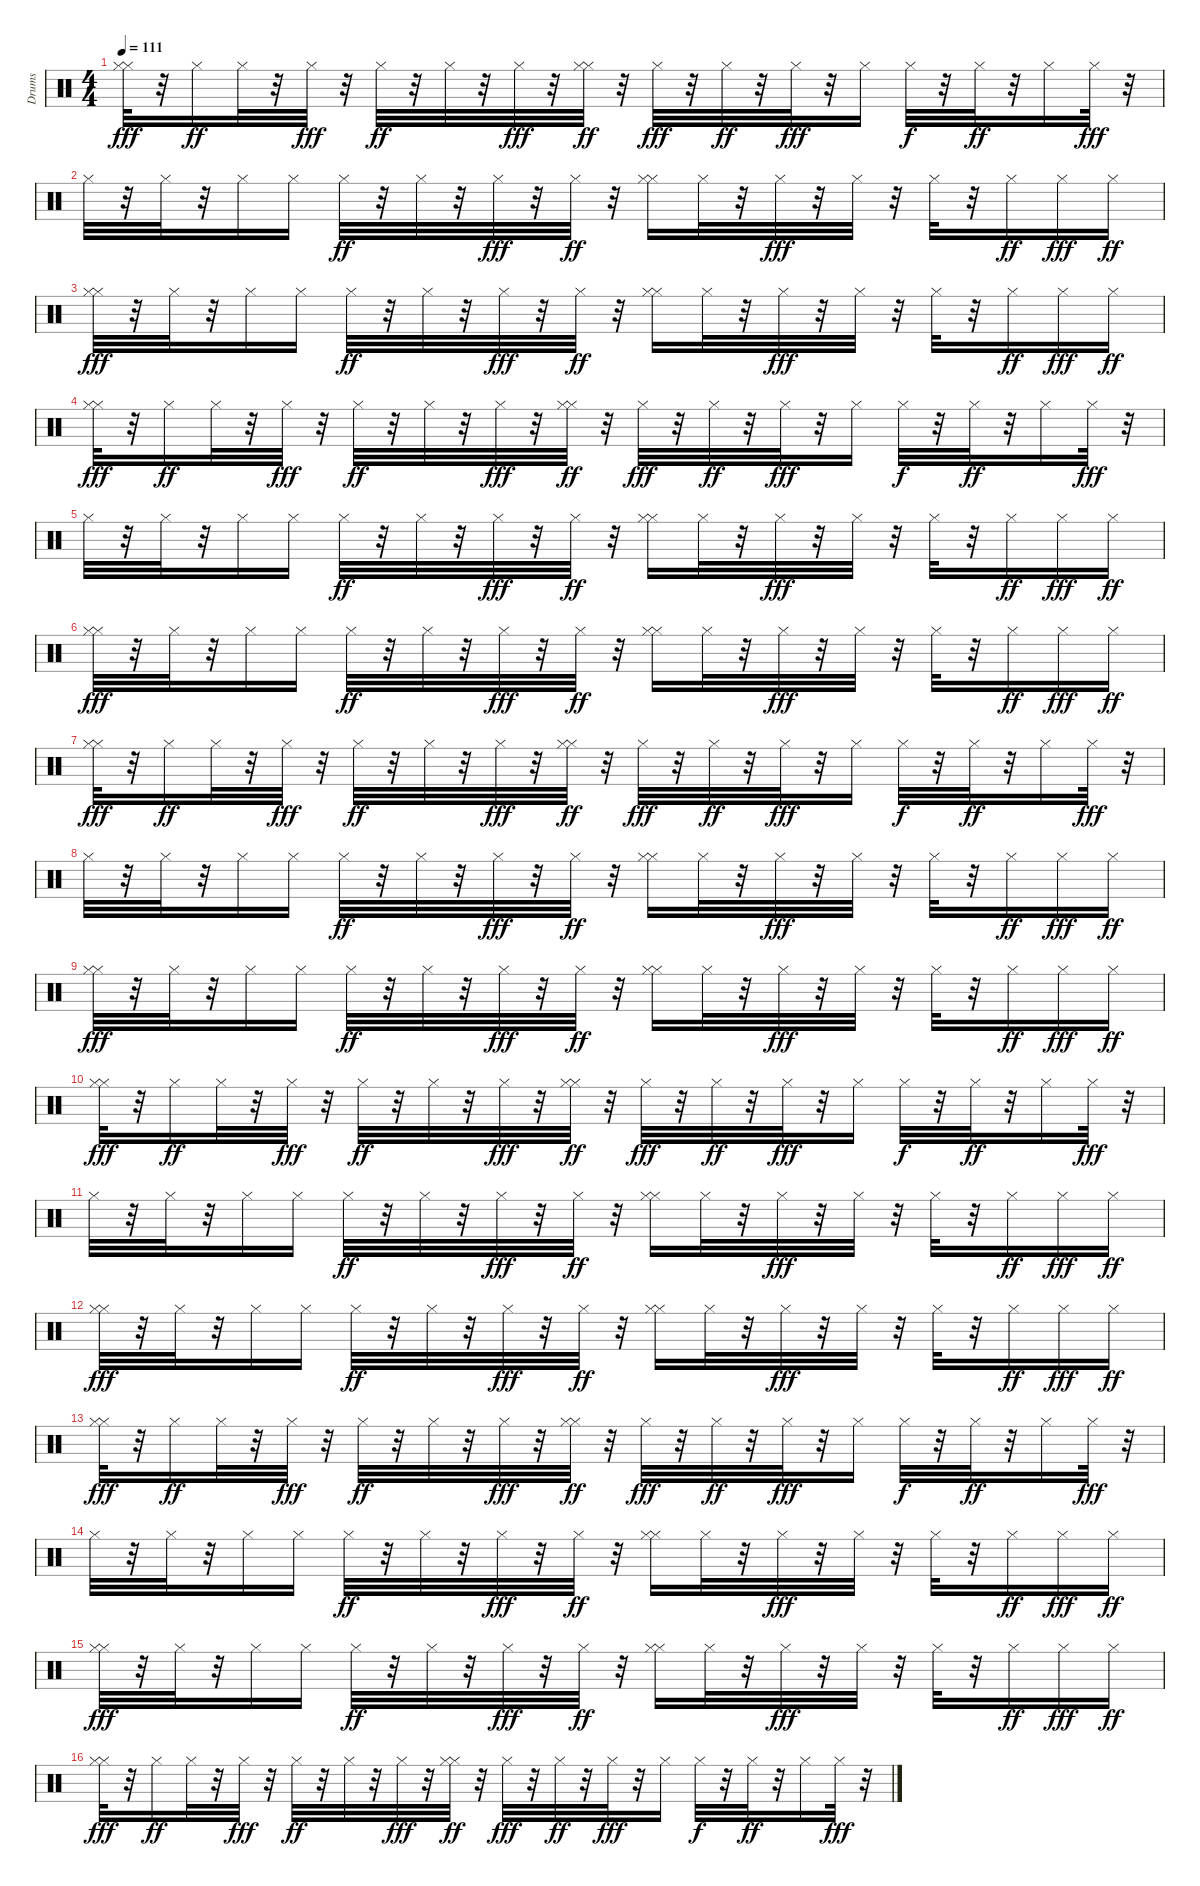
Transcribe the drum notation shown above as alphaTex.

\track ("Drums" "Drums") {instrument percussion}
\staff {score}
\articulation defaults
\ts (4 4)
\tempo 111
\clef neutral
\ks c
("Hi-Hat (closed)" "Hi-Hat (closed)").32{dy fff} r.32 "Hi-Hat (closed)".16{dy ff} "Hi-Hat (closed)".32 r.32 "Hi-Hat (closed)".32{dy fff} r.32 "Hi-Hat (closed)".32{dy ff} r.32 "Hi-Hat (closed)".32 r.32 "Hi-Hat (closed)".32{dy fff} r.32 ("Hi-Hat (closed)" "Hi-Hat (closed)").32{dy ff} r.32 "Hi-Hat (closed)".32{dy fff} r.32 "Hi-Hat (closed)".32{dy ff} r.32 "Hi-Hat (closed)".32{dy fff} r.32 "Hi-Hat (closed)".16 "Hi-Hat (closed)".32{dy f} r.32 "Hi-Hat (closed)".32{dy ff} r.32 "Hi-Hat (closed)".16 "Hi-Hat (closed)".32{dy fff} r.32 |
"Hi-Hat (closed)".32 r.32 "Hi-Hat (closed)".32 r.32 "Hi-Hat (closed)".16 "Hi-Hat (closed)".16 "Hi-Hat (closed)".32{dy ff} r.32 "Hi-Hat (closed)".32 r.32 "Hi-Hat (closed)".32{dy fff} r.32 "Hi-Hat (closed)".32{dy ff} r.32 ("Hi-Hat (closed)" "Hi-Hat (closed)").16 "Hi-Hat (closed)".32 r.32 "Hi-Hat (closed)".32{dy fff} r.32 "Hi-Hat (closed)".32 r.32 "Hi-Hat (closed)".32 r.32 "Hi-Hat (closed)".16{dy ff} "Hi-Hat (closed)".16{dy fff} "Hi-Hat (closed)".16{dy ff} |
("Hi-Hat (closed)" "Hi-Hat (closed)").32{dy fff} r.32 "Hi-Hat (closed)".32 r.32 "Hi-Hat (closed)".16 "Hi-Hat (closed)".16 "Hi-Hat (closed)".32{dy ff} r.32 "Hi-Hat (closed)".32 r.32 "Hi-Hat (closed)".32{dy fff} r.32 "Hi-Hat (closed)".32{dy ff} r.32 ("Hi-Hat (closed)" "Hi-Hat (closed)").16 "Hi-Hat (closed)".32 r.32 "Hi-Hat (closed)".32{dy fff} r.32 "Hi-Hat (closed)".32 r.32 "Hi-Hat (closed)".32 r.32 "Hi-Hat (closed)".16{dy ff} "Hi-Hat (closed)".16{dy fff} "Hi-Hat (closed)".16{dy ff} |
("Hi-Hat (closed)" "Hi-Hat (closed)").32{dy fff} r.32 "Hi-Hat (closed)".16{dy ff} "Hi-Hat (closed)".32 r.32 "Hi-Hat (closed)".32{dy fff} r.32 "Hi-Hat (closed)".32{dy ff} r.32 "Hi-Hat (closed)".32 r.32 "Hi-Hat (closed)".32{dy fff} r.32 ("Hi-Hat (closed)" "Hi-Hat (closed)").32{dy ff} r.32 "Hi-Hat (closed)".32{dy fff} r.32 "Hi-Hat (closed)".32{dy ff} r.32 "Hi-Hat (closed)".32{dy fff} r.32 "Hi-Hat (closed)".16 "Hi-Hat (closed)".32{dy f} r.32 "Hi-Hat (closed)".32{dy ff} r.32 "Hi-Hat (closed)".16 "Hi-Hat (closed)".32{dy fff} r.32 |
"Hi-Hat (closed)".32 r.32 "Hi-Hat (closed)".32 r.32 "Hi-Hat (closed)".16 "Hi-Hat (closed)".16 "Hi-Hat (closed)".32{dy ff} r.32 "Hi-Hat (closed)".32 r.32 "Hi-Hat (closed)".32{dy fff} r.32 "Hi-Hat (closed)".32{dy ff} r.32 ("Hi-Hat (closed)" "Hi-Hat (closed)").16 "Hi-Hat (closed)".32 r.32 "Hi-Hat (closed)".32{dy fff} r.32 "Hi-Hat (closed)".32 r.32 "Hi-Hat (closed)".32 r.32 "Hi-Hat (closed)".16{dy ff} "Hi-Hat (closed)".16{dy fff} "Hi-Hat (closed)".16{dy ff} |
("Hi-Hat (closed)" "Hi-Hat (closed)").32{dy fff} r.32 "Hi-Hat (closed)".32 r.32 "Hi-Hat (closed)".16 "Hi-Hat (closed)".16 "Hi-Hat (closed)".32{dy ff} r.32 "Hi-Hat (closed)".32 r.32 "Hi-Hat (closed)".32{dy fff} r.32 "Hi-Hat (closed)".32{dy ff} r.32 ("Hi-Hat (closed)" "Hi-Hat (closed)").16 "Hi-Hat (closed)".32 r.32 "Hi-Hat (closed)".32{dy fff} r.32 "Hi-Hat (closed)".32 r.32 "Hi-Hat (closed)".32 r.32 "Hi-Hat (closed)".16{dy ff} "Hi-Hat (closed)".16{dy fff} "Hi-Hat (closed)".16{dy ff} |
("Hi-Hat (closed)" "Hi-Hat (closed)").32{dy fff} r.32 "Hi-Hat (closed)".16{dy ff} "Hi-Hat (closed)".32 r.32 "Hi-Hat (closed)".32{dy fff} r.32 "Hi-Hat (closed)".32{dy ff} r.32 "Hi-Hat (closed)".32 r.32 "Hi-Hat (closed)".32{dy fff} r.32 ("Hi-Hat (closed)" "Hi-Hat (closed)").32{dy ff} r.32 "Hi-Hat (closed)".32{dy fff} r.32 "Hi-Hat (closed)".32{dy ff} r.32 "Hi-Hat (closed)".32{dy fff} r.32 "Hi-Hat (closed)".16 "Hi-Hat (closed)".32{dy f} r.32 "Hi-Hat (closed)".32{dy ff} r.32 "Hi-Hat (closed)".16 "Hi-Hat (closed)".32{dy fff} r.32 |
"Hi-Hat (closed)".32 r.32 "Hi-Hat (closed)".32 r.32 "Hi-Hat (closed)".16 "Hi-Hat (closed)".16 "Hi-Hat (closed)".32{dy ff} r.32 "Hi-Hat (closed)".32 r.32 "Hi-Hat (closed)".32{dy fff} r.32 "Hi-Hat (closed)".32{dy ff} r.32 ("Hi-Hat (closed)" "Hi-Hat (closed)").16 "Hi-Hat (closed)".32 r.32 "Hi-Hat (closed)".32{dy fff} r.32 "Hi-Hat (closed)".32 r.32 "Hi-Hat (closed)".32 r.32 "Hi-Hat (closed)".16{dy ff} "Hi-Hat (closed)".16{dy fff} "Hi-Hat (closed)".16{dy ff} |
("Hi-Hat (closed)" "Hi-Hat (closed)").32{dy fff} r.32 "Hi-Hat (closed)".32 r.32 "Hi-Hat (closed)".16 "Hi-Hat (closed)".16 "Hi-Hat (closed)".32{dy ff} r.32 "Hi-Hat (closed)".32 r.32 "Hi-Hat (closed)".32{dy fff} r.32 "Hi-Hat (closed)".32{dy ff} r.32 ("Hi-Hat (closed)" "Hi-Hat (closed)").16 "Hi-Hat (closed)".32 r.32 "Hi-Hat (closed)".32{dy fff} r.32 "Hi-Hat (closed)".32 r.32 "Hi-Hat (closed)".32 r.32 "Hi-Hat (closed)".16{dy ff} "Hi-Hat (closed)".16{dy fff} "Hi-Hat (closed)".16{dy ff} |
("Hi-Hat (closed)" "Hi-Hat (closed)").32{dy fff} r.32 "Hi-Hat (closed)".16{dy ff} "Hi-Hat (closed)".32 r.32 "Hi-Hat (closed)".32{dy fff} r.32 "Hi-Hat (closed)".32{dy ff} r.32 "Hi-Hat (closed)".32 r.32 "Hi-Hat (closed)".32{dy fff} r.32 ("Hi-Hat (closed)" "Hi-Hat (closed)").32{dy ff} r.32 "Hi-Hat (closed)".32{dy fff} r.32 "Hi-Hat (closed)".32{dy ff} r.32 "Hi-Hat (closed)".32{dy fff} r.32 "Hi-Hat (closed)".16 "Hi-Hat (closed)".32{dy f} r.32 "Hi-Hat (closed)".32{dy ff} r.32 "Hi-Hat (closed)".16 "Hi-Hat (closed)".32{dy fff} r.32 |
"Hi-Hat (closed)".32 r.32 "Hi-Hat (closed)".32 r.32 "Hi-Hat (closed)".16 "Hi-Hat (closed)".16 "Hi-Hat (closed)".32{dy ff} r.32 "Hi-Hat (closed)".32 r.32 "Hi-Hat (closed)".32{dy fff} r.32 "Hi-Hat (closed)".32{dy ff} r.32 ("Hi-Hat (closed)" "Hi-Hat (closed)").16 "Hi-Hat (closed)".32 r.32 "Hi-Hat (closed)".32{dy fff} r.32 "Hi-Hat (closed)".32 r.32 "Hi-Hat (closed)".32 r.32 "Hi-Hat (closed)".16{dy ff} "Hi-Hat (closed)".16{dy fff} "Hi-Hat (closed)".16{dy ff} |
("Hi-Hat (closed)" "Hi-Hat (closed)").32{dy fff} r.32 "Hi-Hat (closed)".32 r.32 "Hi-Hat (closed)".16 "Hi-Hat (closed)".16 "Hi-Hat (closed)".32{dy ff} r.32 "Hi-Hat (closed)".32 r.32 "Hi-Hat (closed)".32{dy fff} r.32 "Hi-Hat (closed)".32{dy ff} r.32 ("Hi-Hat (closed)" "Hi-Hat (closed)").16 "Hi-Hat (closed)".32 r.32 "Hi-Hat (closed)".32{dy fff} r.32 "Hi-Hat (closed)".32 r.32 "Hi-Hat (closed)".32 r.32 "Hi-Hat (closed)".16{dy ff} "Hi-Hat (closed)".16{dy fff} "Hi-Hat (closed)".16{dy ff} |
("Hi-Hat (closed)" "Hi-Hat (closed)").32{dy fff} r.32 "Hi-Hat (closed)".16{dy ff} "Hi-Hat (closed)".32 r.32 "Hi-Hat (closed)".32{dy fff} r.32 "Hi-Hat (closed)".32{dy ff} r.32 "Hi-Hat (closed)".32 r.32 "Hi-Hat (closed)".32{dy fff} r.32 ("Hi-Hat (closed)" "Hi-Hat (closed)").32{dy ff} r.32 "Hi-Hat (closed)".32{dy fff} r.32 "Hi-Hat (closed)".32{dy ff} r.32 "Hi-Hat (closed)".32{dy fff} r.32 "Hi-Hat (closed)".16 "Hi-Hat (closed)".32{dy f} r.32 "Hi-Hat (closed)".32{dy ff} r.32 "Hi-Hat (closed)".16 "Hi-Hat (closed)".32{dy fff} r.32 |
"Hi-Hat (closed)".32 r.32 "Hi-Hat (closed)".32 r.32 "Hi-Hat (closed)".16 "Hi-Hat (closed)".16 "Hi-Hat (closed)".32{dy ff} r.32 "Hi-Hat (closed)".32 r.32 "Hi-Hat (closed)".32{dy fff} r.32 "Hi-Hat (closed)".32{dy ff} r.32 ("Hi-Hat (closed)" "Hi-Hat (closed)").16 "Hi-Hat (closed)".32 r.32 "Hi-Hat (closed)".32{dy fff} r.32 "Hi-Hat (closed)".32 r.32 "Hi-Hat (closed)".32 r.32 "Hi-Hat (closed)".16{dy ff} "Hi-Hat (closed)".16{dy fff} "Hi-Hat (closed)".16{dy ff} |
("Hi-Hat (closed)" "Hi-Hat (closed)").32{dy fff} r.32 "Hi-Hat (closed)".32 r.32 "Hi-Hat (closed)".16 "Hi-Hat (closed)".16 "Hi-Hat (closed)".32{dy ff} r.32 "Hi-Hat (closed)".32 r.32 "Hi-Hat (closed)".32{dy fff} r.32 "Hi-Hat (closed)".32{dy ff} r.32 ("Hi-Hat (closed)" "Hi-Hat (closed)").16 "Hi-Hat (closed)".32 r.32 "Hi-Hat (closed)".32{dy fff} r.32 "Hi-Hat (closed)".32 r.32 "Hi-Hat (closed)".32 r.32 "Hi-Hat (closed)".16{dy ff} "Hi-Hat (closed)".16{dy fff} "Hi-Hat (closed)".16{dy ff} |
("Hi-Hat (closed)" "Hi-Hat (closed)").32{dy fff} r.32 "Hi-Hat (closed)".16{dy ff} "Hi-Hat (closed)".32 r.32 "Hi-Hat (closed)".32{dy fff} r.32 "Hi-Hat (closed)".32{dy ff} r.32 "Hi-Hat (closed)".32 r.32 "Hi-Hat (closed)".32{dy fff} r.32 ("Hi-Hat (closed)" "Hi-Hat (closed)").32{dy ff} r.32 "Hi-Hat (closed)".32{dy fff} r.32 "Hi-Hat (closed)".32{dy ff} r.32 "Hi-Hat (closed)".32{dy fff} r.32 "Hi-Hat (closed)".16 "Hi-Hat (closed)".32{dy f} r.32 "Hi-Hat (closed)".32{dy ff} r.32 "Hi-Hat (closed)".16 "Hi-Hat (closed)".32{dy fff} r.32
